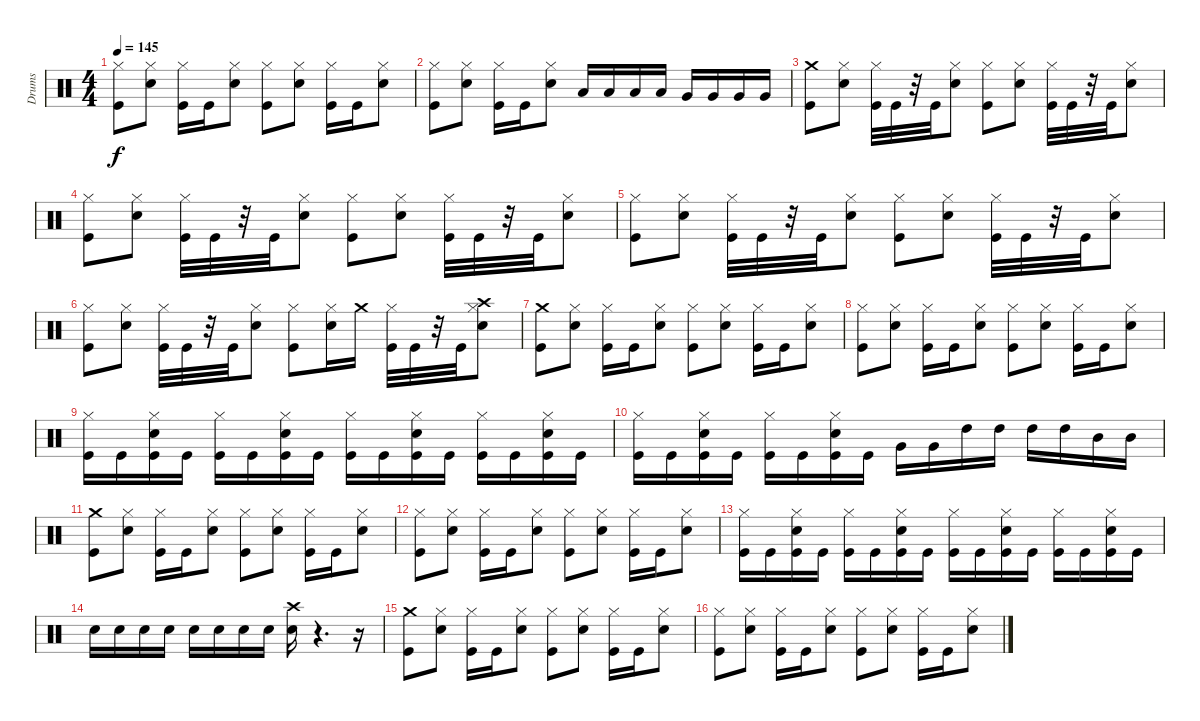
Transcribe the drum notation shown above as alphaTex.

\track ("Drums" "Drums") {instrument percussion}
\staff {score}
\articulation defaults
\ts (4 4)
\tempo 145
\clef neutral
\ks c
("Hi-Hat (closed)" "Kick (hit)").8{dy f} ("Hi-Hat (closed)" "Snare (hit) 2").8 ("Hi-Hat (closed)" "Kick (hit)").16 "Kick (hit)".16 ("Hi-Hat (closed)" "Snare (hit) 2").8 ("Hi-Hat (closed)" "Kick (hit)").8 ("Hi-Hat (closed)" "Snare (hit) 2").8 ("Hi-Hat (closed)" "Kick (hit)").16 "Kick (hit)".16 ("Hi-Hat (closed)" "Snare (hit) 2").8 |
("Hi-Hat (closed)" "Kick (hit)").8 ("Hi-Hat (closed)" "Snare (hit) 2").8 ("Hi-Hat (closed)" "Kick (hit)").16 "Kick (hit)".16 ("Hi-Hat (closed)" "Snare (hit) 2").8 "Low Tom (hit)".16 "Low Tom (hit)".16 "Low Tom (hit)".16 "Low Tom (hit)".16 "Very Low Tom (hit)".16 "Very Low Tom (hit)".16 "Very Low Tom (hit)".16 "Very Low Tom (hit)".16 |
("Crash medium (hit)" "Kick (hit)").8 ("Hi-Hat (closed)" "Snare (hit) 2").8 ("Hi-Hat (closed)" "Kick (hit)").32 "Kick (hit)".32 r.32 "Kick (hit)".32 ("Hi-Hat (closed)" "Snare (hit) 2").8 ("Hi-Hat (closed)" "Kick (hit)").8 ("Hi-Hat (closed)" "Snare (hit) 2").8 ("Hi-Hat (closed)" "Kick (hit)").32 "Kick (hit)".32 r.32 "Kick (hit)".32 ("Hi-Hat (closed)" "Snare (hit) 2").8 |
("Hi-Hat (closed)" "Kick (hit)").8 ("Hi-Hat (closed)" "Snare (hit) 2").8 ("Hi-Hat (closed)" "Kick (hit)").32 "Kick (hit)".32 r.32 "Kick (hit)".32 ("Hi-Hat (closed)" "Snare (hit) 2").8 ("Hi-Hat (closed)" "Kick (hit)").8 ("Hi-Hat (closed)" "Snare (hit) 2").8 ("Hi-Hat (closed)" "Kick (hit)").32 "Kick (hit)".32 r.32 "Kick (hit)".32 ("Hi-Hat (closed)" "Snare (hit) 2").8 |
("Hi-Hat (closed)" "Kick (hit)").8 ("Hi-Hat (closed)" "Snare (hit) 2").8 ("Hi-Hat (closed)" "Kick (hit)").32 "Kick (hit)".32 r.32 "Kick (hit)".32 ("Hi-Hat (closed)" "Snare (hit) 2").8 ("Hi-Hat (closed)" "Kick (hit)").8 ("Hi-Hat (closed)" "Snare (hit) 2").8 ("Hi-Hat (closed)" "Kick (hit)").32 "Kick (hit)".32 r.32 "Kick (hit)".32 ("Hi-Hat (closed)" "Snare (hit) 2").8 |
("Hi-Hat (closed)" "Kick (hit)").8 ("Hi-Hat (closed)" "Snare (hit) 2").8 ("Hi-Hat (closed)" "Kick (hit)").32 "Kick (hit)".32 r.32 "Kick (hit)".32 ("Hi-Hat (closed)" "Snare (hit) 2").8 ("Hi-Hat (closed)" "Kick (hit)").8 ("Hi-Hat (closed)" "Snare (hit) 2").16 "Crash medium (hit)".16 ("Hi-Hat (closed)" "Kick (hit)").32 "Kick (hit)".32 r.32 "Kick (hit)".32 ("Crash high (hit)" "Hi-Hat (closed)" "Snare (hit) 2").8 |
("Crash medium (hit)" "Kick (hit)").8 ("Hi-Hat (closed)" "Snare (hit) 2").8 ("Hi-Hat (closed)" "Kick (hit)").16 "Kick (hit)".16 ("Hi-Hat (closed)" "Snare (hit) 2").8 ("Hi-Hat (closed)" "Kick (hit)").8 ("Hi-Hat (closed)" "Snare (hit) 2").8 ("Hi-Hat (closed)" "Kick (hit)").16 "Kick (hit)".16 ("Hi-Hat (closed)" "Snare (hit) 2").8 |
("Hi-Hat (closed)" "Kick (hit)").8 ("Hi-Hat (closed)" "Snare (hit) 2").8 ("Hi-Hat (closed)" "Kick (hit)").16 "Kick (hit)".16 ("Hi-Hat (closed)" "Snare (hit) 2").8 ("Hi-Hat (closed)" "Kick (hit)").8 ("Hi-Hat (closed)" "Snare (hit) 2").8 ("Hi-Hat (closed)" "Kick (hit)").16 "Kick (hit)".16 ("Hi-Hat (closed)" "Snare (hit) 2").8 |
("Hi-Hat (closed)" "Kick (hit)").16 "Kick (hit)".16 ("Hi-Hat (closed)" "Snare (hit) 2" "Kick (hit)").16 "Kick (hit)".16 ("Hi-Hat (closed)" "Kick (hit)").16 "Kick (hit)".16 ("Hi-Hat (closed)" "Snare (hit) 2" "Kick (hit)").16 "Kick (hit)".16 ("Hi-Hat (closed)" "Kick (hit)").16 "Kick (hit)".16 ("Hi-Hat (closed)" "Snare (hit) 2" "Kick (hit)").16 "Kick (hit)".16 ("Hi-Hat (closed)" "Kick (hit)").16 "Kick (hit)".16 ("Hi-Hat (closed)" "Snare (hit) 2" "Kick (hit)").16 "Kick (hit)".16 |
("Hi-Hat (closed)" "Kick (hit)").16 "Kick (hit)".16 ("Hi-Hat (closed)" "Snare (hit) 2" "Kick (hit)").16 "Kick (hit)".16 ("Hi-Hat (closed)" "Kick (hit)").16 "Kick (hit)".16 ("Hi-Hat (closed)" "Snare (hit) 2" "Kick (hit)").16 "Kick (hit)".16 "Very Low Tom (hit)".16 "Very Low Tom (hit)".16 "High Tom (hit)".16 "High Tom (hit)".16 "High Tom (hit)".16 "High Tom (hit)".16 "Mid Tom (hit)".16 "Mid Tom (hit)".16 |
("Crash medium (hit)" "Kick (hit)").8 ("Hi-Hat (closed)" "Snare (hit) 2").8 ("Hi-Hat (closed)" "Kick (hit)").16 "Kick (hit)".16 ("Hi-Hat (closed)" "Snare (hit) 2").8 ("Hi-Hat (closed)" "Kick (hit)").8 ("Hi-Hat (closed)" "Snare (hit) 2").8 ("Hi-Hat (closed)" "Kick (hit)").16 "Kick (hit)".16 ("Hi-Hat (closed)" "Snare (hit) 2").8 |
("Hi-Hat (closed)" "Kick (hit)").8 ("Hi-Hat (closed)" "Snare (hit) 2").8 ("Hi-Hat (closed)" "Kick (hit)").16 "Kick (hit)".16 ("Hi-Hat (closed)" "Snare (hit) 2").8 ("Hi-Hat (closed)" "Kick (hit)").8 ("Hi-Hat (closed)" "Snare (hit) 2").8 ("Hi-Hat (closed)" "Kick (hit)").16 "Kick (hit)".16 ("Hi-Hat (closed)" "Snare (hit) 2").8 |
("Hi-Hat (closed)" "Kick (hit)").16 "Kick (hit)".16 ("Hi-Hat (closed)" "Snare (hit) 2" "Kick (hit)").16 "Kick (hit)".16 ("Hi-Hat (closed)" "Kick (hit)").16 "Kick (hit)".16 ("Hi-Hat (closed)" "Snare (hit) 2" "Kick (hit)").16 "Kick (hit)".16 ("Hi-Hat (closed)" "Kick (hit)").16 "Kick (hit)".16 ("Hi-Hat (closed)" "Snare (hit) 2" "Kick (hit)").16 "Kick (hit)".16 ("Hi-Hat (closed)" "Kick (hit)").16 "Kick (hit)".16 ("Hi-Hat (closed)" "Snare (hit) 2" "Kick (hit)").16 "Kick (hit)".16 |
"Snare (hit) 2".16 "Snare (hit) 2".16 "Snare (hit) 2".16 "Snare (hit) 2".16 "Snare (hit) 2".16 "Snare (hit) 2".16 "Snare (hit) 2".16 "Snare (hit) 2".16 ("Snare (hit) 2" "Crash high (hit)").16 r.4{d} r.16 |
("Crash medium (hit)" "Kick (hit)").8 ("Hi-Hat (closed)" "Snare (hit) 2").8 ("Hi-Hat (closed)" "Kick (hit)").16 "Kick (hit)".16 ("Hi-Hat (closed)" "Snare (hit) 2").8 ("Hi-Hat (closed)" "Kick (hit)").8 ("Hi-Hat (closed)" "Snare (hit) 2").8 ("Hi-Hat (closed)" "Kick (hit)").16 "Kick (hit)".16 ("Hi-Hat (closed)" "Snare (hit) 2").8 |
("Hi-Hat (closed)" "Kick (hit)").8 ("Hi-Hat (closed)" "Snare (hit) 2").8 ("Hi-Hat (closed)" "Kick (hit)").16 "Kick (hit)".16 ("Hi-Hat (closed)" "Snare (hit) 2").8 ("Hi-Hat (closed)" "Kick (hit)").8 ("Hi-Hat (closed)" "Snare (hit) 2").8 ("Hi-Hat (closed)" "Kick (hit)").16 "Kick (hit)".16 ("Hi-Hat (closed)" "Snare (hit) 2").8
